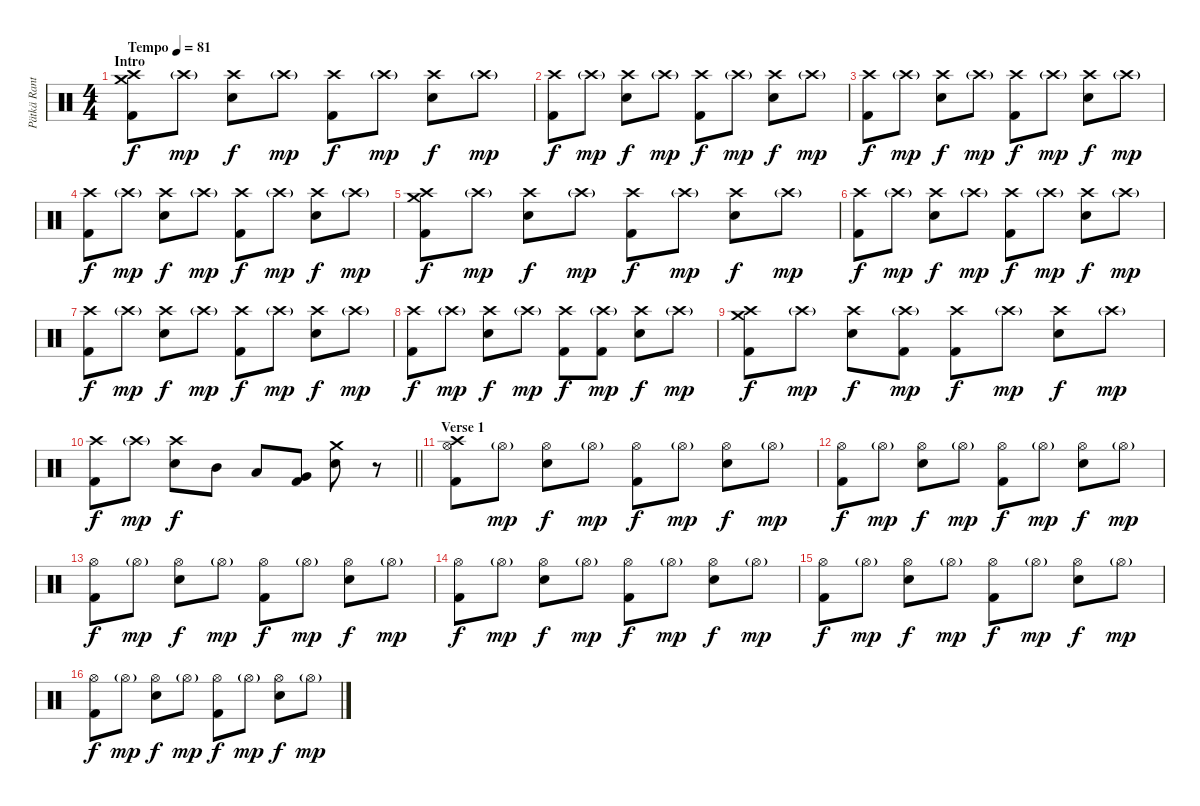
\track ("Pätkä Rantala (Drums)" "Pätkä Rant") {instrument percussion}
\staff {score}
\articulation defaults
\ts (4 4)
\section ("" "Intro")
\tempo (81 "Tempo")
\clef neutral
\ks c
("Crash medium (hit)" "Crash high (hit)" "Kick (hit) 2").8{dy f} "Crash high (hit)"{g}.8{dy mp} ("Crash high (hit)" "Snare (hit) 2").8{dy f} "Crash high (hit)"{g}.8{dy mp} ("Crash high (hit)" "Kick (hit) 2").8{dy f} "Crash high (hit)"{g}.8{dy mp} ("Crash high (hit)" "Snare (hit) 2").8{dy f} "Crash high (hit)"{g}.8{dy mp} |
("Crash high (hit)" "Kick (hit) 2").8{dy f} "Crash high (hit)"{g}.8{dy mp} ("Crash high (hit)" "Snare (hit) 2").8{dy f} "Crash high (hit)"{g}.8{dy mp} ("Crash high (hit)" "Kick (hit) 2").8{dy f} "Crash high (hit)"{g}.8{dy mp} ("Crash high (hit)" "Snare (hit) 2").8{dy f} "Crash high (hit)"{g}.8{dy mp} |
("Crash high (hit)" "Kick (hit) 2").8{dy f} "Crash high (hit)"{g}.8{dy mp} ("Crash high (hit)" "Snare (hit) 2").8{dy f} "Crash high (hit)"{g}.8{dy mp} ("Crash high (hit)" "Kick (hit) 2").8{dy f} "Crash high (hit)"{g}.8{dy mp} ("Crash high (hit)" "Snare (hit) 2").8{dy f} "Crash high (hit)"{g}.8{dy mp} |
("Crash high (hit)" "Kick (hit) 2").8{dy f} "Crash high (hit)"{g}.8{dy mp} ("Crash high (hit)" "Snare (hit) 2").8{dy f} "Crash high (hit)"{g}.8{dy mp} ("Crash high (hit)" "Kick (hit) 2").8{dy f} "Crash high (hit)"{g}.8{dy mp} ("Crash high (hit)" "Snare (hit) 2").8{dy f} "Crash high (hit)"{g}.8{dy mp} |
("Crash medium (hit)" "Crash high (hit)" "Kick (hit) 2").8{dy f} "Crash high (hit)"{g}.8{dy mp} ("Crash high (hit)" "Snare (hit) 2").8{dy f} "Crash high (hit)"{g}.8{dy mp} ("Crash high (hit)" "Kick (hit) 2").8{dy f} "Crash high (hit)"{g}.8{dy mp} ("Crash high (hit)" "Snare (hit) 2").8{dy f} "Crash high (hit)"{g}.8{dy mp} |
("Crash high (hit)" "Kick (hit) 2").8{dy f} "Crash high (hit)"{g}.8{dy mp} ("Crash high (hit)" "Snare (hit) 2").8{dy f} "Crash high (hit)"{g}.8{dy mp} ("Crash high (hit)" "Kick (hit) 2").8{dy f} "Crash high (hit)"{g}.8{dy mp} ("Crash high (hit)" "Snare (hit) 2").8{dy f} "Crash high (hit)"{g}.8{dy mp} |
("Crash high (hit)" "Kick (hit) 2").8{dy f} "Crash high (hit)"{g}.8{dy mp} ("Crash high (hit)" "Snare (hit) 2").8{dy f} "Crash high (hit)"{g}.8{dy mp} ("Crash high (hit)" "Kick (hit) 2").8{dy f} "Crash high (hit)"{g}.8{dy mp} ("Crash high (hit)" "Snare (hit) 2").8{dy f} "Crash high (hit)"{g}.8{dy mp} |
("Crash high (hit)" "Kick (hit) 2").8{dy f} "Crash high (hit)"{g}.8{dy mp} ("Crash high (hit)" "Snare (hit) 2").8{dy f} "Crash high (hit)"{g}.8{dy mp} ("Crash high (hit)" "Kick (hit) 2").8{dy f} ("Crash high (hit)"{g} "Kick (hit) 2").8{dy mp} ("Crash high (hit)" "Snare (hit) 2").8{dy f} "Crash high (hit)"{g}.8{dy mp} |
("Crash medium (hit)" "Crash high (hit)" "Kick (hit) 2").8{dy f} "Crash high (hit)"{g}.8{dy mp} ("Crash high (hit)" "Snare (hit) 2").8{dy f} ("Crash high (hit)"{g} "Kick (hit) 2").8{dy mp} ("Crash high (hit)" "Kick (hit) 2").8{dy f} "Crash high (hit)"{g}.8{dy mp} ("Crash high (hit)" "Snare (hit) 2").8{dy f} "Crash high (hit)"{g}.8{dy mp} |
\barLineRight lightlight
("Crash high (hit)" "Kick (hit) 2").8{dy f} "Crash high (hit)"{g}.8{dy mp} ("Crash high (hit)" "Snare (hit) 2").8{dy f} "Mid Tom (hit)".8 "Low Tom (hit)".8 ("Very Low Tom (hit)" "Kick (hit) 2").8 ("Crash medium (hit)" "Snare (hit) 2").8 r.8 |
\section ("" "Verse 1")
("Crash high (hit)" "Hi-Hat (open)" "Kick (hit) 2").8 "Hi-Hat (open)"{g}.8{dy mp} ("Hi-Hat (open)" "Snare (hit) 2").8{dy f} "Hi-Hat (open)"{g}.8{dy mp} ("Hi-Hat (open)" "Kick (hit) 2").8{dy f} "Hi-Hat (open)"{g}.8{dy mp} ("Hi-Hat (open)" "Snare (hit) 2").8{dy f} "Hi-Hat (open)"{g}.8{dy mp} |
("Hi-Hat (open)" "Kick (hit) 2").8{dy f} "Hi-Hat (open)"{g}.8{dy mp} ("Hi-Hat (open)" "Snare (hit) 2").8{dy f} "Hi-Hat (open)"{g}.8{dy mp} ("Hi-Hat (open)" "Kick (hit) 2").8{dy f} "Hi-Hat (open)"{g}.8{dy mp} ("Hi-Hat (open)" "Snare (hit) 2").8{dy f} "Hi-Hat (open)"{g}.8{dy mp} |
("Hi-Hat (open)" "Kick (hit) 2").8{dy f} "Hi-Hat (open)"{g}.8{dy mp} ("Hi-Hat (open)" "Snare (hit) 2").8{dy f} "Hi-Hat (open)"{g}.8{dy mp} ("Hi-Hat (open)" "Kick (hit) 2").8{dy f} "Hi-Hat (open)"{g}.8{dy mp} ("Hi-Hat (open)" "Snare (hit) 2").8{dy f} "Hi-Hat (open)"{g}.8{dy mp} |
("Hi-Hat (open)" "Kick (hit) 2").8{dy f} "Hi-Hat (open)"{g}.8{dy mp} ("Hi-Hat (open)" "Snare (hit) 2").8{dy f} "Hi-Hat (open)"{g}.8{dy mp} ("Hi-Hat (open)" "Kick (hit) 2").8{dy f} "Hi-Hat (open)"{g}.8{dy mp} ("Hi-Hat (open)" "Snare (hit) 2").8{dy f} "Hi-Hat (open)"{g}.8{dy mp} |
("Hi-Hat (open)" "Kick (hit) 2").8{dy f} "Hi-Hat (open)"{g}.8{dy mp} ("Hi-Hat (open)" "Snare (hit) 2").8{dy f} "Hi-Hat (open)"{g}.8{dy mp} ("Hi-Hat (open)" "Kick (hit) 2").8{dy f} "Hi-Hat (open)"{g}.8{dy mp} ("Hi-Hat (open)" "Snare (hit) 2").8{dy f} "Hi-Hat (open)"{g}.8{dy mp} |
("Hi-Hat (open)" "Kick (hit) 2").8{dy f} "Hi-Hat (open)"{g}.8{dy mp} ("Hi-Hat (open)" "Snare (hit) 2").8{dy f} "Hi-Hat (open)"{g}.8{dy mp} ("Hi-Hat (open)" "Kick (hit) 2").8{dy f} "Hi-Hat (open)"{g}.8{dy mp} ("Hi-Hat (open)" "Snare (hit) 2").8{dy f} "Hi-Hat (open)"{g}.8{dy mp}
